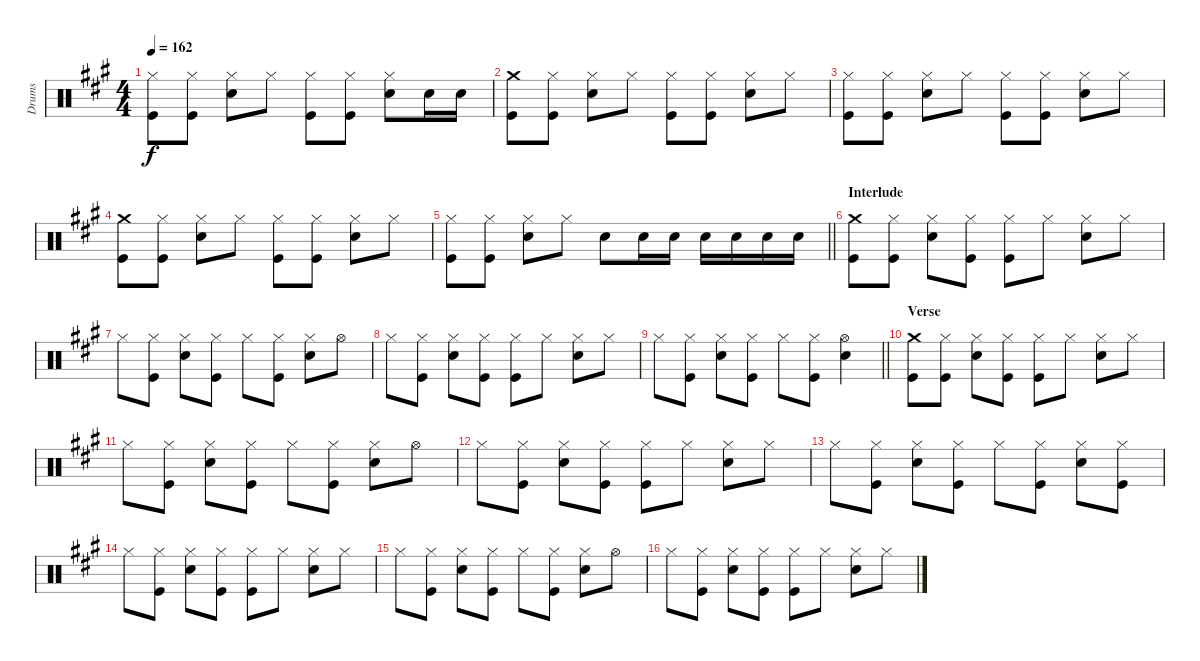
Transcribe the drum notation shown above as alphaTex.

\track ("Drums" "Drums") {instrument percussion}
\staff {score}
\articulation defaults
\ts (4 4)
\tempo 162
\clef neutral
\ks a
("Kick (hit)" "Hi-Hat (closed)").8{dy f} ("Kick (hit)" "Hi-Hat (closed)").8 ("Snare (hit) 2" "Hi-Hat (closed)").8 "Hi-Hat (closed)".8 ("Kick (hit)" "Hi-Hat (closed)").8 ("Kick (hit)" "Hi-Hat (closed)").8 ("Snare (hit) 2" "Hi-Hat (closed)").8 "Snare (hit) 2".16 "Snare (hit) 2".16 |
("Kick (hit)" "Crash medium (hit)").8 ("Kick (hit)" "Hi-Hat (closed)").8 ("Snare (hit) 2" "Hi-Hat (closed)").8 "Hi-Hat (closed)".8 ("Kick (hit)" "Hi-Hat (closed)").8 ("Kick (hit)" "Hi-Hat (closed)").8 ("Snare (hit) 2" "Hi-Hat (closed)").8 "Hi-Hat (closed)".8 |
("Kick (hit)" "Hi-Hat (closed)").8 ("Kick (hit)" "Hi-Hat (closed)").8 ("Snare (hit) 2" "Hi-Hat (closed)").8 "Hi-Hat (closed)".8 ("Kick (hit)" "Hi-Hat (closed)").8 ("Kick (hit)" "Hi-Hat (closed)").8 ("Snare (hit) 2" "Hi-Hat (closed)").8 "Hi-Hat (closed)".8 |
("Kick (hit)" "Crash medium (hit)").8 ("Kick (hit)" "Hi-Hat (closed)").8 ("Snare (hit) 2" "Hi-Hat (closed)").8 "Hi-Hat (closed)".8 ("Kick (hit)" "Hi-Hat (closed)").8 ("Kick (hit)" "Hi-Hat (closed)").8 ("Snare (hit) 2" "Hi-Hat (closed)").8 "Hi-Hat (closed)".8 |
\barLineRight lightlight
("Kick (hit)" "Hi-Hat (closed)").8 ("Kick (hit)" "Hi-Hat (closed)").8 ("Snare (hit) 2" "Hi-Hat (closed)").8 "Hi-Hat (closed)".8 "Snare (hit) 2".8 "Snare (hit) 2".16 "Snare (hit) 2".16 "Snare (hit) 2".16 "Snare (hit) 2".16 "Snare (hit) 2".16 "Snare (hit) 2".16 |
\section ("" "Interlude")
("Kick (hit)" "Crash medium (hit)").8 ("Kick (hit)" "Hi-Hat (closed)").8 ("Hi-Hat (closed)" "Snare (hit) 2").8 ("Kick (hit)" "Hi-Hat (closed)").8 ("Hi-Hat (closed)" "Kick (hit)").8 "Hi-Hat (closed)".8 ("Hi-Hat (closed)" "Snare (hit) 2").8 "Hi-Hat (closed)".8 |
"Hi-Hat (closed)".8 ("Kick (hit)" "Hi-Hat (closed)").8 ("Hi-Hat (closed)" "Snare (hit) 2").8 ("Kick (hit)" "Hi-Hat (closed)").8 "Hi-Hat (closed)".8 ("Kick (hit)" "Hi-Hat (closed)").8 ("Hi-Hat (closed)" "Snare (hit) 2").8 "Hi-Hat (open)".8 |
"Hi-Hat (closed)".8 ("Kick (hit)" "Hi-Hat (closed)").8 ("Hi-Hat (closed)" "Snare (hit) 2").8 ("Kick (hit)" "Hi-Hat (closed)").8 ("Hi-Hat (closed)" "Kick (hit)").8 "Hi-Hat (closed)".8 ("Hi-Hat (closed)" "Snare (hit) 2").8 "Hi-Hat (closed)".8 |
\barLineRight lightlight "Hi-Hat (closed)".8
("Kick (hit)" "Hi-Hat (closed)").8 ("Hi-Hat (closed)" "Snare (hit) 2").8 ("Kick (hit)" "Hi-Hat (closed)").8 "Hi-Hat (closed)".8 ("Kick (hit)" "Hi-Hat (closed)").8 ("Hi-Hat (open)" "Snare (hit) 2").4 |
\section ("" "Verse")
("Kick (hit)" "Crash medium (hit)").8 ("Kick (hit)" "Hi-Hat (closed)").8 ("Hi-Hat (closed)" "Snare (hit) 2").8 ("Kick (hit)" "Hi-Hat (closed)").8 ("Hi-Hat (closed)" "Kick (hit)").8 "Hi-Hat (closed)".8 ("Hi-Hat (closed)" "Snare (hit) 2").8 "Hi-Hat (closed)".8 |
"Hi-Hat (closed)".8 ("Kick (hit)" "Hi-Hat (closed)").8 ("Hi-Hat (closed)" "Snare (hit) 2").8 ("Kick (hit)" "Hi-Hat (closed)").8 "Hi-Hat (closed)".8 ("Kick (hit)" "Hi-Hat (closed)").8 ("Hi-Hat (closed)" "Snare (hit) 2").8 "Hi-Hat (open)".8 |
"Hi-Hat (closed)".8 ("Kick (hit)" "Hi-Hat (closed)").8 ("Hi-Hat (closed)" "Snare (hit) 2").8 ("Kick (hit)" "Hi-Hat (closed)").8 ("Hi-Hat (closed)" "Kick (hit)").8 "Hi-Hat (closed)".8 ("Hi-Hat (closed)" "Snare (hit) 2").8 "Hi-Hat (closed)".8 |
"Hi-Hat (closed)".8 ("Kick (hit)" "Hi-Hat (closed)").8 ("Hi-Hat (closed)" "Snare (hit) 2").8 ("Kick (hit)" "Hi-Hat (closed)").8 "Hi-Hat (closed)".8 ("Kick (hit)" "Hi-Hat (closed)").8 ("Hi-Hat (closed)" "Snare (hit) 2").8 ("Kick (hit)" "Hi-Hat (closed)").8 |
"Hi-Hat (closed)".8 ("Kick (hit)" "Hi-Hat (closed)").8 ("Hi-Hat (closed)" "Snare (hit) 2").8 ("Kick (hit)" "Hi-Hat (closed)").8 ("Hi-Hat (closed)" "Kick (hit)").8 "Hi-Hat (closed)".8 ("Hi-Hat (closed)" "Snare (hit) 2").8 "Hi-Hat (closed)".8 |
"Hi-Hat (closed)".8 ("Kick (hit)" "Hi-Hat (closed)").8 ("Hi-Hat (closed)" "Snare (hit) 2").8 ("Kick (hit)" "Hi-Hat (closed)").8 "Hi-Hat (closed)".8 ("Kick (hit)" "Hi-Hat (closed)").8 ("Hi-Hat (closed)" "Snare (hit) 2").8 "Hi-Hat (open)".8 |
"Hi-Hat (closed)".8 ("Kick (hit)" "Hi-Hat (closed)").8 ("Hi-Hat (closed)" "Snare (hit) 2").8 ("Kick (hit)" "Hi-Hat (closed)").8 ("Hi-Hat (closed)" "Kick (hit)").8 "Hi-Hat (closed)".8 ("Hi-Hat (closed)" "Snare (hit) 2").8 "Hi-Hat (closed)".8
